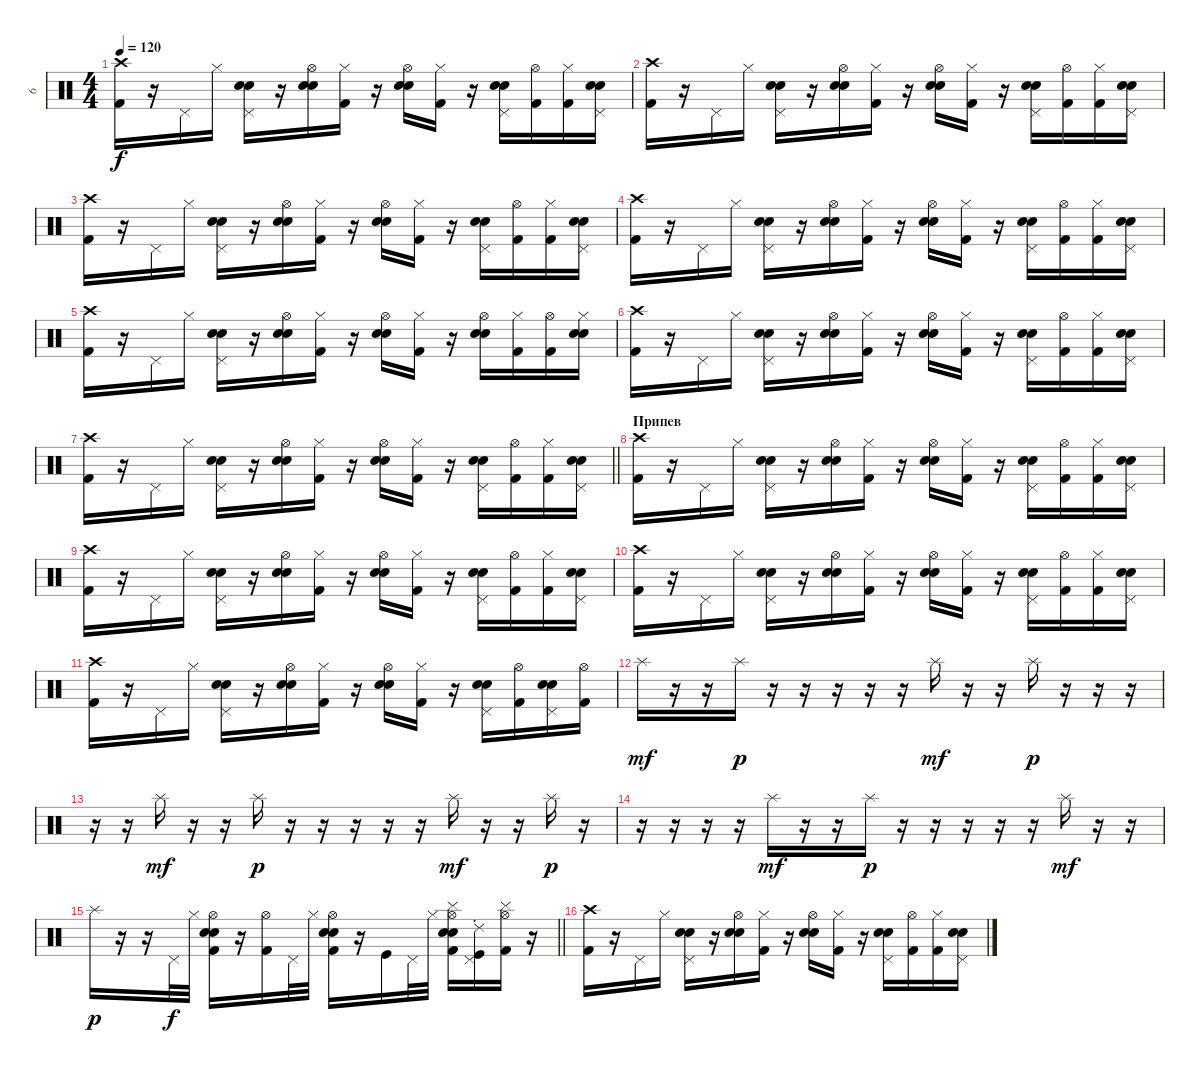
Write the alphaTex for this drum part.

\track ("6" "6") {instrument percussion}
\staff {score}
\articulation defaults
\ts (4 4)
\tempo 120
\clef neutral
\ks c
("Crash high (hit)" "Kick (hit) 2").16{dy f} r.16 "Pedal Hi-Hat (hit)".16 "Hi-Hat (closed)".16 ("Pedal Hi-Hat (hit)" "Snare (hit)" "Snare (hit) 2").16 r.16 ("Hi-Hat (open)" "Snare (hit)" "Snare (hit) 2").16 ("Hi-Hat (closed)" "Kick (hit) 2").16 r.16 ("Hi-Hat (open)" "Snare (hit)" "Snare (hit) 2").16 ("Hi-Hat (closed)" "Kick (hit) 2").16 r.16 ("Pedal Hi-Hat (hit)" "Snare (hit)" "Snare (hit) 2").16 ("Hi-Hat (open)" "Kick (hit) 2").16 ("Hi-Hat (closed)" "Kick (hit) 2").16 ("Pedal Hi-Hat (hit)" "Snare (hit)" "Snare (hit) 2").16 |
("Crash high (hit)" "Kick (hit) 2").16 r.16 "Pedal Hi-Hat (hit)".16 "Hi-Hat (closed)".16 ("Pedal Hi-Hat (hit)" "Snare (hit)" "Snare (hit) 2").16 r.16 ("Hi-Hat (open)" "Snare (hit)" "Snare (hit) 2").16 ("Hi-Hat (closed)" "Kick (hit) 2").16 r.16 ("Hi-Hat (open)" "Snare (hit)" "Snare (hit) 2").16 ("Hi-Hat (closed)" "Kick (hit) 2").16 r.16 ("Pedal Hi-Hat (hit)" "Snare (hit)" "Snare (hit) 2").16 ("Hi-Hat (open)" "Kick (hit) 2").16 ("Hi-Hat (closed)" "Kick (hit) 2").16 ("Pedal Hi-Hat (hit)" "Snare (hit)" "Snare (hit) 2").16 |
("Crash high (hit)" "Kick (hit) 2").16 r.16 "Pedal Hi-Hat (hit)".16 "Hi-Hat (closed)".16 ("Pedal Hi-Hat (hit)" "Snare (hit)" "Snare (hit) 2").16 r.16 ("Hi-Hat (open)" "Snare (hit)" "Snare (hit) 2").16 ("Hi-Hat (closed)" "Kick (hit) 2").16 r.16 ("Hi-Hat (open)" "Snare (hit)" "Snare (hit) 2").16 ("Hi-Hat (closed)" "Kick (hit) 2").16 r.16 ("Pedal Hi-Hat (hit)" "Snare (hit)" "Snare (hit) 2").16 ("Hi-Hat (open)" "Kick (hit) 2").16 ("Hi-Hat (closed)" "Kick (hit) 2").16 ("Pedal Hi-Hat (hit)" "Snare (hit)" "Snare (hit) 2").16 |
("Crash high (hit)" "Kick (hit) 2").16 r.16 "Pedal Hi-Hat (hit)".16 "Hi-Hat (closed)".16 ("Pedal Hi-Hat (hit)" "Snare (hit)" "Snare (hit) 2").16 r.16 ("Hi-Hat (open)" "Snare (hit)" "Snare (hit) 2").16 ("Hi-Hat (closed)" "Kick (hit) 2").16 r.16 ("Hi-Hat (open)" "Snare (hit)" "Snare (hit) 2").16 ("Hi-Hat (closed)" "Kick (hit) 2").16 r.16 ("Pedal Hi-Hat (hit)" "Snare (hit)" "Snare (hit) 2").16 ("Hi-Hat (open)" "Kick (hit) 2").16 ("Hi-Hat (closed)" "Kick (hit) 2").16 ("Pedal Hi-Hat (hit)" "Snare (hit)" "Snare (hit) 2").16 |
("Crash high (hit)" "Kick (hit) 2").16 r.16 "Pedal Hi-Hat (hit)".16 "Hi-Hat (closed)".16 ("Pedal Hi-Hat (hit)" "Snare (hit)" "Snare (hit) 2").16 r.16 ("Hi-Hat (open)" "Snare (hit)" "Snare (hit) 2").16 ("Hi-Hat (closed)" "Kick (hit) 2").16 r.16 ("Hi-Hat (open)" "Snare (hit)" "Snare (hit) 2").16 ("Hi-Hat (closed)" "Kick (hit) 2").16 r.16 ("Hi-Hat (open)" "Snare (hit)" "Snare (hit) 2").16 ("Hi-Hat (closed)" "Kick (hit) 2").16 ("Hi-Hat (open)" "Kick (hit) 2").16 ("Hi-Hat (closed)" "Snare (hit)" "Snare (hit) 2").16 |
("Crash high (hit)" "Kick (hit) 2").16 r.16 "Pedal Hi-Hat (hit)".16 "Hi-Hat (closed)".16 ("Pedal Hi-Hat (hit)" "Snare (hit)" "Snare (hit) 2").16 r.16 ("Hi-Hat (open)" "Snare (hit)" "Snare (hit) 2").16 ("Hi-Hat (closed)" "Kick (hit) 2").16 r.16 ("Hi-Hat (open)" "Snare (hit)" "Snare (hit) 2").16 ("Hi-Hat (closed)" "Kick (hit) 2").16 r.16 ("Pedal Hi-Hat (hit)" "Snare (hit)" "Snare (hit) 2").16 ("Hi-Hat (open)" "Kick (hit) 2").16 ("Hi-Hat (closed)" "Kick (hit) 2").16 ("Pedal Hi-Hat (hit)" "Snare (hit)" "Snare (hit) 2").16 |
\barLineRight lightlight
("Crash high (hit)" "Kick (hit) 2").16 r.16 "Pedal Hi-Hat (hit)".16 "Hi-Hat (closed)".16 ("Pedal Hi-Hat (hit)" "Snare (hit)" "Snare (hit) 2").16 r.16 ("Hi-Hat (open)" "Snare (hit)" "Snare (hit) 2").16 ("Hi-Hat (closed)" "Kick (hit) 2").16 r.16 ("Hi-Hat (open)" "Snare (hit)" "Snare (hit) 2").16 ("Hi-Hat (closed)" "Kick (hit) 2").16 r.16 ("Pedal Hi-Hat (hit)" "Snare (hit)" "Snare (hit) 2").16 ("Hi-Hat (open)" "Kick (hit) 2").16 ("Hi-Hat (closed)" "Kick (hit) 2").16 ("Pedal Hi-Hat (hit)" "Snare (hit)" "Snare (hit) 2").16 |
\section ("" "Припев")
("Crash high (hit)" "Kick (hit) 2").16 r.16 "Pedal Hi-Hat (hit)".16 "Hi-Hat (closed)".16 ("Pedal Hi-Hat (hit)" "Snare (hit)" "Snare (hit) 2").16 r.16 ("Hi-Hat (open)" "Snare (hit)" "Snare (hit) 2").16 ("Hi-Hat (closed)" "Kick (hit) 2").16 r.16 ("Hi-Hat (open)" "Snare (hit)" "Snare (hit) 2").16 ("Hi-Hat (closed)" "Kick (hit) 2").16 r.16 ("Pedal Hi-Hat (hit)" "Snare (hit)" "Snare (hit) 2").16 ("Hi-Hat (open)" "Kick (hit) 2").16 ("Hi-Hat (closed)" "Kick (hit) 2").16 ("Pedal Hi-Hat (hit)" "Snare (hit)" "Snare (hit) 2").16 |
("Crash high (hit)" "Kick (hit) 2").16 r.16 "Pedal Hi-Hat (hit)".16 "Hi-Hat (closed)".16 ("Pedal Hi-Hat (hit)" "Snare (hit)" "Snare (hit) 2").16 r.16 ("Hi-Hat (open)" "Snare (hit)" "Snare (hit) 2").16 ("Hi-Hat (closed)" "Kick (hit) 2").16 r.16 ("Hi-Hat (open)" "Snare (hit)" "Snare (hit) 2").16 ("Hi-Hat (closed)" "Kick (hit) 2").16 r.16 ("Pedal Hi-Hat (hit)" "Snare (hit)" "Snare (hit) 2").16 ("Hi-Hat (open)" "Kick (hit) 2").16 ("Hi-Hat (closed)" "Kick (hit) 2").16 ("Pedal Hi-Hat (hit)" "Snare (hit)" "Snare (hit) 2").16 |
("Crash high (hit)" "Kick (hit) 2").16 r.16 "Pedal Hi-Hat (hit)".16 "Hi-Hat (closed)".16 ("Pedal Hi-Hat (hit)" "Snare (hit)" "Snare (hit) 2").16 r.16 ("Hi-Hat (open)" "Snare (hit)" "Snare (hit) 2").16 ("Hi-Hat (closed)" "Kick (hit) 2").16 r.16 ("Hi-Hat (open)" "Snare (hit)" "Snare (hit) 2").16 ("Hi-Hat (closed)" "Kick (hit) 2").16 r.16 ("Pedal Hi-Hat (hit)" "Snare (hit)" "Snare (hit) 2").16 ("Hi-Hat (open)" "Kick (hit) 2").16 ("Hi-Hat (closed)" "Kick (hit) 2").16 ("Pedal Hi-Hat (hit)" "Snare (hit)" "Snare (hit) 2").16 |
("Crash high (hit)" "Kick (hit) 2").16 r.16 "Pedal Hi-Hat (hit)".16 "Hi-Hat (closed)".16 ("Pedal Hi-Hat (hit)" "Snare (hit)" "Snare (hit) 2").16 r.16 ("Hi-Hat (open)" "Snare (hit)" "Snare (hit) 2").16 ("Hi-Hat (closed)" "Kick (hit) 2").16 r.16 ("Hi-Hat (open)" "Snare (hit)" "Snare (hit) 2").16 ("Hi-Hat (closed)" "Kick (hit) 2").16 r.16 ("Pedal Hi-Hat (hit)" "Snare (hit)" "Snare (hit) 2").16 ("Hi-Hat (open)" "Kick (hit) 2").16 ("Pedal Hi-Hat (hit)" "Snare (hit)" "Snare (hit) 2").16 ("Hi-Hat (open)" "Kick (hit) 2").16 |
"Splash (hit)".16{dy mf} r.16 r.16 "Splash (hit)".16{dy p} r.16 r.16 r.16 r.16 r.16 "Splash (hit)".16{dy mf} r.16 r.16 "Splash (hit)".16{dy p} r.16 r.16 r.16 |
r.16 r.16 "Splash (hit)".16{dy mf} r.16 r.16 "Splash (hit)".16{dy p} r.16 r.16 r.16 r.16 r.16 "Splash (hit)".16{dy mf} r.16 r.16 "Splash (hit)".16{dy p} r.16 |
r.16 r.16 r.16 r.16 "Splash (hit)".16{dy mf} r.16 r.16 "Splash (hit)".16{dy p} r.16 r.16 r.16 r.16 r.16 "Splash (hit)".16{dy mf} r.16 r.16 |
\barLineRight lightlight "Splash (hit)".16{dy p}
r.16 r.16 "Pedal Hi-Hat (hit)".32{dy f} "Hi-Hat (closed)".32 ("Hi-Hat (open)" "Kick (hit) 2" "Snare (hit)" "Snare (hit) 2").16 r.16 ("Hi-Hat (open)" "Kick (hit) 2").16 "Pedal Hi-Hat (hit)".32 "Hi-Hat (closed)".32 ("Hi-Hat (open)" "Kick (hit) 2" "Snare (hit)" "Snare (hit) 2").16 r.16 "Kick (hit)".16 "Pedal Hi-Hat (hit)".32 "Hi-Hat (closed)".32 ("Hi-Hat (open)" "Cymbal (hit)" "Kick (hit) 2" "Snare (hit)" "Snare (hit) 2").16 ("Pedal Hi-Hat (hit)" "Ride (choke) 2" "Kick (hit)").16 ("Hi-Hat (open)" "Cymbal (hit)" "Kick (hit) 2").16 r.16 |
("Crash high (hit)" "Kick (hit) 2").16 r.16 "Pedal Hi-Hat (hit)".16 "Hi-Hat (closed)".16 ("Pedal Hi-Hat (hit)" "Snare (hit)" "Snare (hit) 2").16 r.16 ("Hi-Hat (open)" "Snare (hit)" "Snare (hit) 2").16 ("Hi-Hat (closed)" "Kick (hit) 2").16 r.16 ("Hi-Hat (open)" "Snare (hit)" "Snare (hit) 2").16 ("Hi-Hat (closed)" "Kick (hit) 2").16 r.16 ("Pedal Hi-Hat (hit)" "Snare (hit)" "Snare (hit) 2").16 ("Hi-Hat (open)" "Kick (hit) 2").16 ("Hi-Hat (closed)" "Kick (hit) 2").16 ("Pedal Hi-Hat (hit)" "Snare (hit)" "Snare (hit) 2").16
